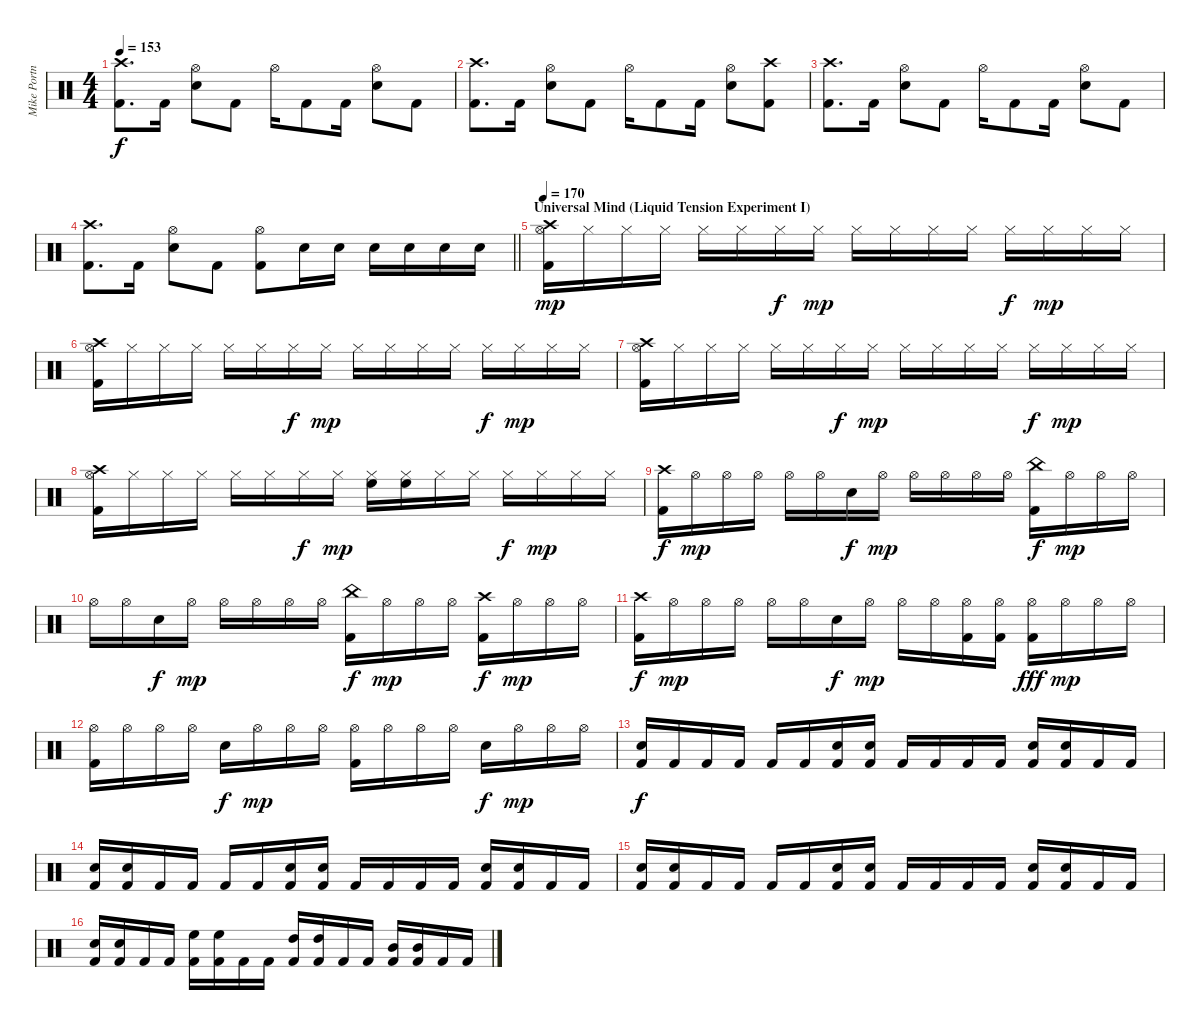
\track ("Mike Portnoy Drums" "Mike Portn") {instrument percussion}
\staff {score}
\articulation defaults
\ts (4 4)
\tempo 153
\clef neutral
\ks c
("Kick (hit) 2" "Crash high (hit)").8{d dy f} "Kick (hit) 2".16 ("Electric Snare (hit)" "Hi-Hat (open)").8 "Kick (hit) 2".8 "Hi-Hat (open)".16 "Kick (hit) 2".8 "Kick (hit) 2".16 ("Electric Snare (hit)" "Hi-Hat (open)").8 "Kick (hit) 2".8 |
("Kick (hit) 2" "Crash high (hit)").8{d} "Kick (hit) 2".16 ("Electric Snare (hit)" "Hi-Hat (open)").8 "Kick (hit) 2".8 "Hi-Hat (open)".16 "Kick (hit) 2".8 "Kick (hit) 2".16 ("Electric Snare (hit)" "Hi-Hat (open)").8 ("Kick (hit) 2" "Crash high (hit)").8 |
("Crash high (hit)" "Kick (hit) 2").8{d} "Kick (hit) 2".16 ("Electric Snare (hit)" "Hi-Hat (open)").8 "Kick (hit) 2".8 "Hi-Hat (open)".16 "Kick (hit) 2".8 "Kick (hit) 2".16 ("Electric Snare (hit)" "Hi-Hat (open)").8 "Kick (hit) 2".8 |
\barLineRight lightlight
("Kick (hit) 2" "Crash high (hit)").8{d} "Kick (hit) 2".16 ("Electric Snare (hit)" "Hi-Hat (open)").8 "Kick (hit) 2".8 ("Kick (hit) 2" "Hi-Hat (open)").8 "Electric Snare (hit)".16 "Electric Snare (hit)".16 "Electric Snare (hit)".16 "Electric Snare (hit)".16 "Electric Snare (hit)".16 "Electric Snare (hit)".16 |
\section ("" "Universal Mind (Liquid Tension Experiment I)")
\tempo 170
("Crash high (hit)" "Kick (hit) 2" "Hi-Hat (open)").16{dy mp} "Hi-Hat (closed)".16 "Hi-Hat (closed)".16 "Hi-Hat (closed)".16 "Hi-Hat (closed)".16 "Hi-Hat (closed)".16 "Hi-Hat (closed)".16{dy f} "Hi-Hat (closed)".16{dy mp} "Hi-Hat (closed)".16 "Hi-Hat (closed)".16 "Hi-Hat (closed)".16 "Hi-Hat (closed)".16 "Hi-Hat (closed)".16{dy f} "Hi-Hat (closed)".16{dy mp} "Hi-Hat (closed)".16 "Hi-Hat (closed)".16 |
("Crash high (hit)" "Kick (hit) 2" "Hi-Hat (open)").16 "Hi-Hat (closed)".16 "Hi-Hat (closed)".16 "Hi-Hat (closed)".16 "Hi-Hat (closed)".16 "Hi-Hat (closed)".16 "Hi-Hat (closed)".16{dy f} "Hi-Hat (closed)".16{dy mp} "Hi-Hat (closed)".16 "Hi-Hat (closed)".16 "Hi-Hat (closed)".16 "Hi-Hat (closed)".16 "Hi-Hat (closed)".16{dy f} "Hi-Hat (closed)".16{dy mp} "Hi-Hat (closed)".16 "Hi-Hat (closed)".16 |
("Crash high (hit)" "Kick (hit) 2" "Hi-Hat (open)").16 "Hi-Hat (closed)".16 "Hi-Hat (closed)".16 "Hi-Hat (closed)".16 "Hi-Hat (closed)".16 "Hi-Hat (closed)".16 "Hi-Hat (closed)".16{dy f} "Hi-Hat (closed)".16{dy mp} "Hi-Hat (closed)".16 "Hi-Hat (closed)".16 "Hi-Hat (closed)".16 "Hi-Hat (closed)".16 "Hi-Hat (closed)".16{dy f} "Hi-Hat (closed)".16{dy mp} "Hi-Hat (closed)".16 "Hi-Hat (closed)".16 |
("Crash high (hit)" "Kick (hit) 2" "Hi-Hat (open)").16 "Hi-Hat (closed)".16 "Hi-Hat (closed)".16 "Hi-Hat (closed)".16 "Hi-Hat (closed)".16 "Hi-Hat (closed)".16 "Hi-Hat (closed)".16{dy f} "Hi-Hat (closed)".16{dy mp} ("Hi-Hat (closed)" "High Floor Tom (hit)").16 ("Hi-Hat (closed)" "High Floor Tom (hit)").16 "Hi-Hat (closed)".16 "Hi-Hat (closed)".16 "Hi-Hat (closed)".16{dy f} "Hi-Hat (closed)".16{dy mp} "Hi-Hat (closed)".16 "Hi-Hat (closed)".16 |
("Crash high (hit)" "Kick (hit) 2").16{dy f} "Hi-Hat (open)".16{dy mp} "Hi-Hat (open)".16 "Hi-Hat (open)".16 "Hi-Hat (open)".16 "Hi-Hat (open)".16 "Electric Snare (hit)".16{dy f} "Hi-Hat (open)".16{dy mp} "Hi-Hat (open)".16 "Hi-Hat (open)".16 "Hi-Hat (open)".16 "Hi-Hat (open)".16 ("China (hit)" "Kick (hit) 2").16{dy f} "Hi-Hat (open)".16{dy mp} "Hi-Hat (open)".16 "Hi-Hat (open)".16 |
"Hi-Hat (open)".16 "Hi-Hat (open)".16 "Electric Snare (hit)".16{dy f} "Hi-Hat (open)".16{dy mp} "Hi-Hat (open)".16 "Hi-Hat (open)".16 "Hi-Hat (open)".16 "Hi-Hat (open)".16 ("China (hit)" "Kick (hit) 2").16{dy f} "Hi-Hat (open)".16{dy mp} "Hi-Hat (open)".16 "Hi-Hat (open)".16 ("Crash high (hit)" "Kick (hit) 2").16{dy f} "Hi-Hat (open)".16{dy mp} "Hi-Hat (open)".16 "Hi-Hat (open)".16 |
("Kick (hit) 2" "Crash high (hit)").16{dy f} "Hi-Hat (open)".16{dy mp} "Hi-Hat (open)".16 "Hi-Hat (open)".16 "Hi-Hat (open)".16 "Hi-Hat (open)".16 "Electric Snare (hit)".16{dy f} "Hi-Hat (open)".16{dy mp} "Hi-Hat (open)".16 "Hi-Hat (open)".16 ("Kick (hit) 2" "Hi-Hat (open)").16 ("Kick (hit) 2" "Hi-Hat (open)").16 ("Hi-Hat (open)" "Kick (hit) 2").16{dy fff} "Hi-Hat (open)".16{dy mp} "Hi-Hat (open)".16 "Hi-Hat (open)".16 |
("Kick (hit) 2" "Hi-Hat (open)").16 "Hi-Hat (open)".16 "Hi-Hat (open)".16 "Hi-Hat (open)".16 "Electric Snare (hit)".16{dy f} "Hi-Hat (open)".16{dy mp} "Hi-Hat (open)".16 "Hi-Hat (open)".16 ("Kick (hit) 2" "Hi-Hat (open)").16 "Hi-Hat (open)".16 "Hi-Hat (open)".16 "Hi-Hat (open)".16 "Electric Snare (hit)".16{dy f} "Hi-Hat (open)".16{dy mp} "Hi-Hat (open)".16 "Hi-Hat (open)".16 |
("Electric Snare (hit)" "Kick (hit) 2").16{dy f} "Kick (hit) 2".16 "Kick (hit) 2".16 "Kick (hit) 2".16 "Kick (hit) 2".16 "Kick (hit) 2".16 ("Kick (hit) 2" "Electric Snare (hit)").16 ("Kick (hit) 2" "Electric Snare (hit)").16 "Kick (hit) 2".16 "Kick (hit) 2".16 "Kick (hit) 2".16 "Kick (hit) 2".16 ("Kick (hit) 2" "Electric Snare (hit)").16 ("Kick (hit) 2" "Electric Snare (hit)").16 "Kick (hit) 2".16 "Kick (hit) 2".16 |
("Kick (hit) 2" "Electric Snare (hit)").16 ("Kick (hit) 2" "Electric Snare (hit)").16 "Kick (hit) 2".16 "Kick (hit) 2".16 "Kick (hit) 2".16 "Kick (hit) 2".16 ("Kick (hit) 2" "Electric Snare (hit)").16 ("Kick (hit) 2" "Electric Snare (hit)").16 "Kick (hit) 2".16 "Kick (hit) 2".16 "Kick (hit) 2".16 "Kick (hit) 2".16 ("Kick (hit) 2" "Electric Snare (hit)").16 ("Kick (hit) 2" "Electric Snare (hit)").16 "Kick (hit) 2".16 "Kick (hit) 2".16 |
("Kick (hit) 2" "Electric Snare (hit)").16 ("Kick (hit) 2" "Electric Snare (hit)").16 "Kick (hit) 2".16 "Kick (hit) 2".16 "Kick (hit) 2".16 "Kick (hit) 2".16 ("Kick (hit) 2" "Electric Snare (hit)").16 ("Kick (hit) 2" "Electric Snare (hit)").16 "Kick (hit) 2".16 "Kick (hit) 2".16 "Kick (hit) 2".16 "Kick (hit) 2".16 ("Kick (hit) 2" "Electric Snare (hit)").16 ("Kick (hit) 2" "Electric Snare (hit)").16 "Kick (hit) 2".16 "Kick (hit) 2".16 |
("Kick (hit) 2" "Electric Snare (hit)").16 ("Kick (hit) 2" "Electric Snare (hit)").16 "Kick (hit) 2".16 "Kick (hit) 2".16 ("Kick (hit) 2" "High Floor Tom (hit)").16 ("Kick (hit) 2" "High Floor Tom (hit)").16 "Kick (hit) 2".16 "Kick (hit) 2".16 ("Kick (hit) 2" "High Tom (hit)").16 ("Kick (hit) 2" "High Tom (hit)").16 "Kick (hit) 2".16 "Kick (hit) 2".16 ("Kick (hit) 2" "Mid Tom (hit)").16 ("Kick (hit) 2" "Mid Tom (hit)").16 "Kick (hit) 2".16 "Kick (hit) 2".16
